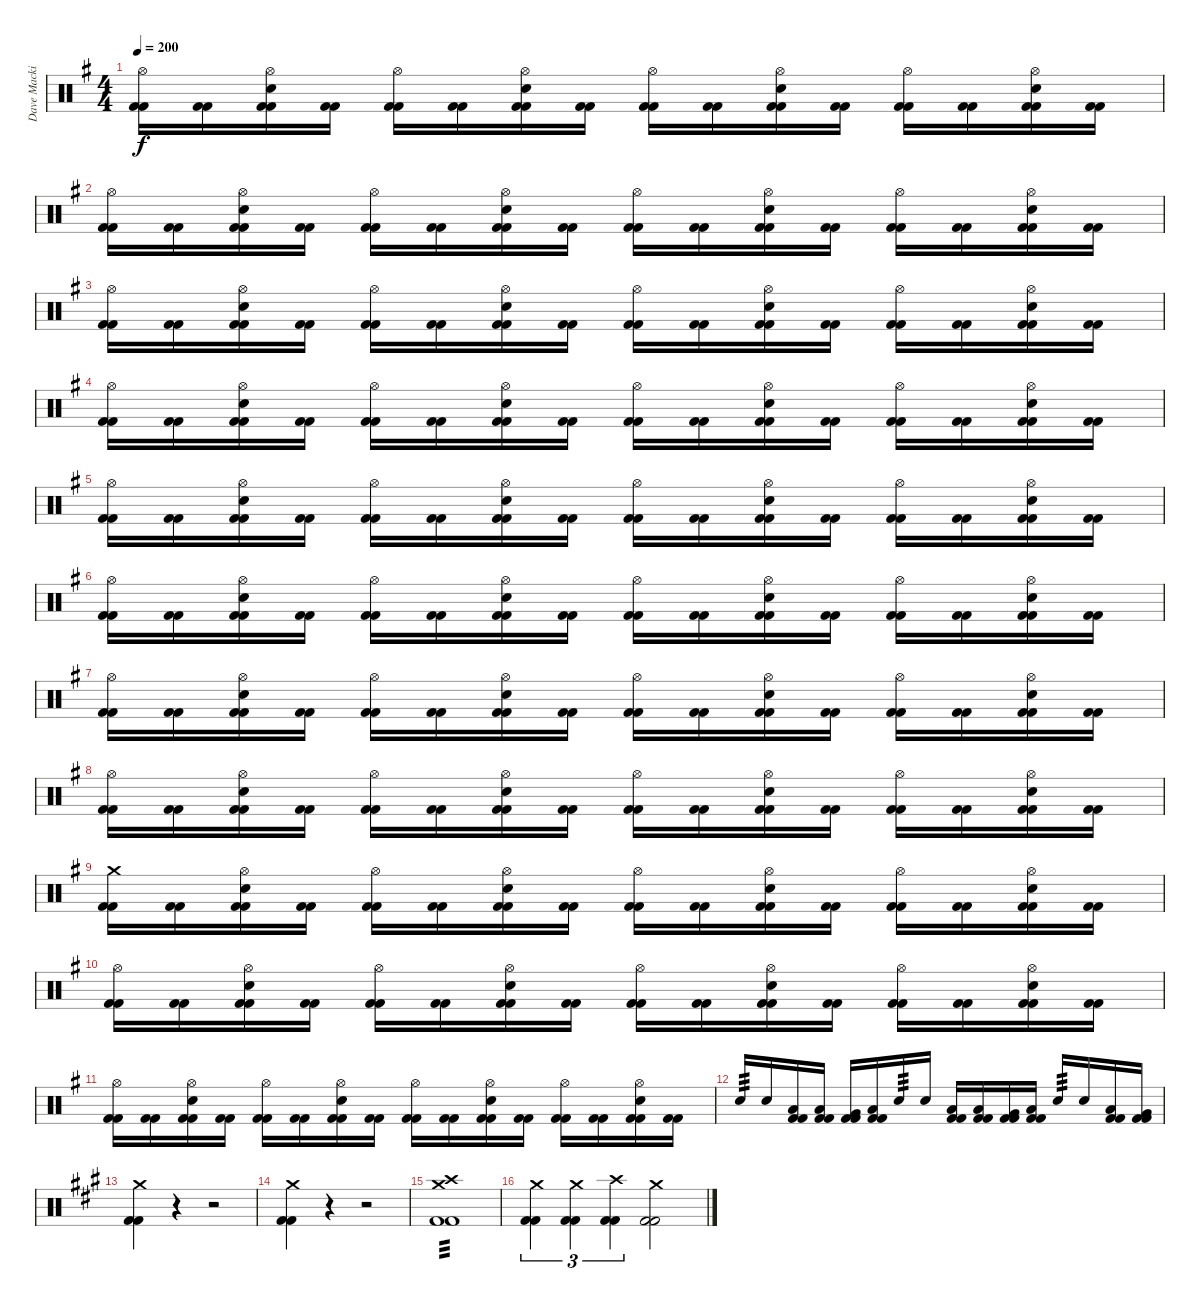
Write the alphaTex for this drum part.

\track ("Dave Mackintosh" "Dave Macki") {instrument percussion}
\staff {score}
\articulation defaults
\ts (4 4)
\tempo 200
\clef neutral
\ks g
("Hi-Hat (open)" "Kick (hit) 2" "Kick (hit) 2").16{dy f} ("Kick (hit) 2" "Kick (hit) 2").16 ("Hi-Hat (open)" "Electric Snare (hit)" "Kick (hit) 2" "Kick (hit) 2").16 ("Kick (hit) 2" "Kick (hit) 2").16 ("Hi-Hat (open)" "Kick (hit) 2" "Kick (hit) 2").16 ("Kick (hit) 2" "Kick (hit) 2").16 ("Hi-Hat (open)" "Electric Snare (hit)" "Kick (hit) 2" "Kick (hit) 2").16 ("Kick (hit) 2" "Kick (hit) 2").16 ("Hi-Hat (open)" "Kick (hit) 2" "Kick (hit) 2").16 ("Kick (hit) 2" "Kick (hit) 2").16 ("Hi-Hat (open)" "Electric Snare (hit)" "Kick (hit) 2" "Kick (hit) 2").16 ("Kick (hit) 2" "Kick (hit) 2").16 ("Hi-Hat (open)" "Kick (hit) 2" "Kick (hit) 2").16 ("Kick (hit) 2" "Kick (hit) 2").16 ("Hi-Hat (open)" "Electric Snare (hit)" "Kick (hit) 2" "Kick (hit) 2").16 ("Kick (hit) 2" "Kick (hit) 2").16 |
("Hi-Hat (open)" "Kick (hit) 2" "Kick (hit) 2").16 ("Kick (hit) 2" "Kick (hit) 2").16 ("Hi-Hat (open)" "Electric Snare (hit)" "Kick (hit) 2" "Kick (hit) 2").16 ("Kick (hit) 2" "Kick (hit) 2").16 ("Hi-Hat (open)" "Kick (hit) 2" "Kick (hit) 2").16 ("Kick (hit) 2" "Kick (hit) 2").16 ("Hi-Hat (open)" "Electric Snare (hit)" "Kick (hit) 2" "Kick (hit) 2").16 ("Kick (hit) 2" "Kick (hit) 2").16 ("Hi-Hat (open)" "Kick (hit) 2" "Kick (hit) 2").16 ("Kick (hit) 2" "Kick (hit) 2").16 ("Hi-Hat (open)" "Electric Snare (hit)" "Kick (hit) 2" "Kick (hit) 2").16 ("Kick (hit) 2" "Kick (hit) 2").16 ("Hi-Hat (open)" "Kick (hit) 2" "Kick (hit) 2").16 ("Kick (hit) 2" "Kick (hit) 2").16 ("Hi-Hat (open)" "Electric Snare (hit)" "Kick (hit) 2" "Kick (hit) 2").16 ("Kick (hit) 2" "Kick (hit) 2").16 |
("Hi-Hat (open)" "Kick (hit) 2" "Kick (hit) 2").16 ("Kick (hit) 2" "Kick (hit) 2").16 ("Hi-Hat (open)" "Electric Snare (hit)" "Kick (hit) 2" "Kick (hit) 2").16 ("Kick (hit) 2" "Kick (hit) 2").16 ("Hi-Hat (open)" "Kick (hit) 2" "Kick (hit) 2").16 ("Kick (hit) 2" "Kick (hit) 2").16 ("Hi-Hat (open)" "Electric Snare (hit)" "Kick (hit) 2" "Kick (hit) 2").16 ("Kick (hit) 2" "Kick (hit) 2").16 ("Hi-Hat (open)" "Kick (hit) 2" "Kick (hit) 2").16 ("Kick (hit) 2" "Kick (hit) 2").16 ("Hi-Hat (open)" "Electric Snare (hit)" "Kick (hit) 2" "Kick (hit) 2").16 ("Kick (hit) 2" "Kick (hit) 2").16 ("Hi-Hat (open)" "Kick (hit) 2" "Kick (hit) 2").16 ("Kick (hit) 2" "Kick (hit) 2").16 ("Hi-Hat (open)" "Electric Snare (hit)" "Kick (hit) 2" "Kick (hit) 2").16 ("Kick (hit) 2" "Kick (hit) 2").16 |
("Hi-Hat (open)" "Kick (hit) 2" "Kick (hit) 2").16 ("Kick (hit) 2" "Kick (hit) 2").16 ("Hi-Hat (open)" "Electric Snare (hit)" "Kick (hit) 2" "Kick (hit) 2").16 ("Kick (hit) 2" "Kick (hit) 2").16 ("Hi-Hat (open)" "Kick (hit) 2" "Kick (hit) 2").16 ("Kick (hit) 2" "Kick (hit) 2").16 ("Hi-Hat (open)" "Electric Snare (hit)" "Kick (hit) 2" "Kick (hit) 2").16 ("Kick (hit) 2" "Kick (hit) 2").16 ("Hi-Hat (open)" "Kick (hit) 2" "Kick (hit) 2").16 ("Kick (hit) 2" "Kick (hit) 2").16 ("Hi-Hat (open)" "Electric Snare (hit)" "Kick (hit) 2" "Kick (hit) 2").16 ("Kick (hit) 2" "Kick (hit) 2").16 ("Hi-Hat (open)" "Kick (hit) 2" "Kick (hit) 2").16 ("Kick (hit) 2" "Kick (hit) 2").16 ("Hi-Hat (open)" "Electric Snare (hit)" "Kick (hit) 2" "Kick (hit) 2").16 ("Kick (hit) 2" "Kick (hit) 2").16 |
("Hi-Hat (open)" "Kick (hit) 2" "Kick (hit) 2").16 ("Kick (hit) 2" "Kick (hit) 2").16 ("Hi-Hat (open)" "Electric Snare (hit)" "Kick (hit) 2" "Kick (hit) 2").16 ("Kick (hit) 2" "Kick (hit) 2").16 ("Hi-Hat (open)" "Kick (hit) 2" "Kick (hit) 2").16 ("Kick (hit) 2" "Kick (hit) 2").16 ("Hi-Hat (open)" "Electric Snare (hit)" "Kick (hit) 2" "Kick (hit) 2").16 ("Kick (hit) 2" "Kick (hit) 2").16 ("Hi-Hat (open)" "Kick (hit) 2" "Kick (hit) 2").16 ("Kick (hit) 2" "Kick (hit) 2").16 ("Hi-Hat (open)" "Electric Snare (hit)" "Kick (hit) 2" "Kick (hit) 2").16 ("Kick (hit) 2" "Kick (hit) 2").16 ("Hi-Hat (open)" "Kick (hit) 2" "Kick (hit) 2").16 ("Kick (hit) 2" "Kick (hit) 2").16 ("Hi-Hat (open)" "Electric Snare (hit)" "Kick (hit) 2" "Kick (hit) 2").16 ("Kick (hit) 2" "Kick (hit) 2").16 |
("Hi-Hat (open)" "Kick (hit) 2" "Kick (hit) 2").16 ("Kick (hit) 2" "Kick (hit) 2").16 ("Hi-Hat (open)" "Electric Snare (hit)" "Kick (hit) 2" "Kick (hit) 2").16 ("Kick (hit) 2" "Kick (hit) 2").16 ("Hi-Hat (open)" "Kick (hit) 2" "Kick (hit) 2").16 ("Kick (hit) 2" "Kick (hit) 2").16 ("Hi-Hat (open)" "Electric Snare (hit)" "Kick (hit) 2" "Kick (hit) 2").16 ("Kick (hit) 2" "Kick (hit) 2").16 ("Hi-Hat (open)" "Kick (hit) 2" "Kick (hit) 2").16 ("Kick (hit) 2" "Kick (hit) 2").16 ("Hi-Hat (open)" "Electric Snare (hit)" "Kick (hit) 2" "Kick (hit) 2").16 ("Kick (hit) 2" "Kick (hit) 2").16 ("Hi-Hat (open)" "Kick (hit) 2" "Kick (hit) 2").16 ("Kick (hit) 2" "Kick (hit) 2").16 ("Hi-Hat (open)" "Electric Snare (hit)" "Kick (hit) 2" "Kick (hit) 2").16 ("Kick (hit) 2" "Kick (hit) 2").16 |
("Hi-Hat (open)" "Kick (hit) 2" "Kick (hit) 2").16 ("Kick (hit) 2" "Kick (hit) 2").16 ("Hi-Hat (open)" "Electric Snare (hit)" "Kick (hit) 2" "Kick (hit) 2").16 ("Kick (hit) 2" "Kick (hit) 2").16 ("Hi-Hat (open)" "Kick (hit) 2" "Kick (hit) 2").16 ("Kick (hit) 2" "Kick (hit) 2").16 ("Hi-Hat (open)" "Electric Snare (hit)" "Kick (hit) 2" "Kick (hit) 2").16 ("Kick (hit) 2" "Kick (hit) 2").16 ("Hi-Hat (open)" "Kick (hit) 2" "Kick (hit) 2").16 ("Kick (hit) 2" "Kick (hit) 2").16 ("Hi-Hat (open)" "Electric Snare (hit)" "Kick (hit) 2" "Kick (hit) 2").16 ("Kick (hit) 2" "Kick (hit) 2").16 ("Hi-Hat (open)" "Kick (hit) 2" "Kick (hit) 2").16 ("Kick (hit) 2" "Kick (hit) 2").16 ("Hi-Hat (open)" "Electric Snare (hit)" "Kick (hit) 2" "Kick (hit) 2").16 ("Kick (hit) 2" "Kick (hit) 2").16 |
("Hi-Hat (open)" "Kick (hit) 2" "Kick (hit) 2").16 ("Kick (hit) 2" "Kick (hit) 2").16 ("Hi-Hat (open)" "Electric Snare (hit)" "Kick (hit) 2" "Kick (hit) 2").16 ("Kick (hit) 2" "Kick (hit) 2").16 ("Hi-Hat (open)" "Kick (hit) 2" "Kick (hit) 2").16 ("Kick (hit) 2" "Kick (hit) 2").16 ("Hi-Hat (open)" "Electric Snare (hit)" "Kick (hit) 2" "Kick (hit) 2").16 ("Kick (hit) 2" "Kick (hit) 2").16 ("Hi-Hat (open)" "Kick (hit) 2" "Kick (hit) 2").16 ("Kick (hit) 2" "Kick (hit) 2").16 ("Hi-Hat (open)" "Electric Snare (hit)" "Kick (hit) 2" "Kick (hit) 2").16 ("Kick (hit) 2" "Kick (hit) 2").16 ("Hi-Hat (open)" "Kick (hit) 2" "Kick (hit) 2").16 ("Kick (hit) 2" "Kick (hit) 2").16 ("Hi-Hat (open)" "Electric Snare (hit)" "Kick (hit) 2" "Kick (hit) 2").16 ("Kick (hit) 2" "Kick (hit) 2").16 |
("Crash medium (hit)" "Kick (hit) 2" "Kick (hit) 2").16 ("Kick (hit) 2" "Kick (hit) 2").16 ("Hi-Hat (open)" "Electric Snare (hit)" "Kick (hit) 2" "Kick (hit) 2").16 ("Kick (hit) 2" "Kick (hit) 2").16 ("Hi-Hat (open)" "Kick (hit) 2" "Kick (hit) 2").16 ("Kick (hit) 2" "Kick (hit) 2").16 ("Hi-Hat (open)" "Electric Snare (hit)" "Kick (hit) 2" "Kick (hit) 2").16 ("Kick (hit) 2" "Kick (hit) 2").16 ("Hi-Hat (open)" "Kick (hit) 2" "Kick (hit) 2").16 ("Kick (hit) 2" "Kick (hit) 2").16 ("Hi-Hat (open)" "Electric Snare (hit)" "Kick (hit) 2" "Kick (hit) 2").16 ("Kick (hit) 2" "Kick (hit) 2").16 ("Hi-Hat (open)" "Kick (hit) 2" "Kick (hit) 2").16 ("Kick (hit) 2" "Kick (hit) 2").16 ("Hi-Hat (open)" "Electric Snare (hit)" "Kick (hit) 2" "Kick (hit) 2").16 ("Kick (hit) 2" "Kick (hit) 2").16 |
("Hi-Hat (open)" "Kick (hit) 2" "Kick (hit) 2").16 ("Kick (hit) 2" "Kick (hit) 2").16 ("Hi-Hat (open)" "Electric Snare (hit)" "Kick (hit) 2" "Kick (hit) 2").16 ("Kick (hit) 2" "Kick (hit) 2").16 ("Hi-Hat (open)" "Kick (hit) 2" "Kick (hit) 2").16 ("Kick (hit) 2" "Kick (hit) 2").16 ("Hi-Hat (open)" "Electric Snare (hit)" "Kick (hit) 2" "Kick (hit) 2").16 ("Kick (hit) 2" "Kick (hit) 2").16 ("Hi-Hat (open)" "Kick (hit) 2" "Kick (hit) 2").16 ("Kick (hit) 2" "Kick (hit) 2").16 ("Hi-Hat (open)" "Electric Snare (hit)" "Kick (hit) 2" "Kick (hit) 2").16 ("Kick (hit) 2" "Kick (hit) 2").16 ("Hi-Hat (open)" "Kick (hit) 2" "Kick (hit) 2").16 ("Kick (hit) 2" "Kick (hit) 2").16 ("Hi-Hat (open)" "Electric Snare (hit)" "Kick (hit) 2" "Kick (hit) 2").16 ("Kick (hit) 2" "Kick (hit) 2").16 |
("Hi-Hat (open)" "Kick (hit) 2" "Kick (hit) 2").16 ("Kick (hit) 2" "Kick (hit) 2").16 ("Hi-Hat (open)" "Electric Snare (hit)" "Kick (hit) 2" "Kick (hit) 2").16 ("Kick (hit) 2" "Kick (hit) 2").16 ("Hi-Hat (open)" "Kick (hit) 2" "Kick (hit) 2").16 ("Kick (hit) 2" "Kick (hit) 2").16 ("Hi-Hat (open)" "Electric Snare (hit)" "Kick (hit) 2" "Kick (hit) 2").16 ("Kick (hit) 2" "Kick (hit) 2").16 ("Hi-Hat (open)" "Kick (hit) 2" "Kick (hit) 2").16 ("Kick (hit) 2" "Kick (hit) 2").16 ("Hi-Hat (open)" "Electric Snare (hit)" "Kick (hit) 2" "Kick (hit) 2").16 ("Kick (hit) 2" "Kick (hit) 2").16 ("Hi-Hat (open)" "Kick (hit) 2" "Kick (hit) 2").16 ("Kick (hit) 2" "Kick (hit) 2").16 ("Hi-Hat (open)" "Electric Snare (hit)" "Kick (hit) 2" "Kick (hit) 2").16 ("Kick (hit) 2" "Kick (hit) 2").16 |
"Electric Snare (hit)".16{tp 3} "Electric Snare (hit)".16 ("Low Tom (hit)" "Kick (hit) 2" "Kick (hit) 2").16 ("Low Tom (hit)" "Kick (hit) 2" "Kick (hit) 2").16 ("Very Low Tom (hit)" "Kick (hit) 2" "Kick (hit) 2").16 ("Low Floor Tom (hit)" "Kick (hit) 2" "Kick (hit) 2").16 "Electric Snare (hit)".16{tp 3} "Electric Snare (hit)".16 ("Low Tom (hit)" "Kick (hit) 2" "Kick (hit) 2").16 ("Low Tom (hit)" "Kick (hit) 2" "Kick (hit) 2").16 ("Very Low Tom (hit)" "Kick (hit) 2" "Kick (hit) 2").16 ("Low Floor Tom (hit)" "Kick (hit) 2" "Kick (hit) 2").16 "Electric Snare (hit)".16{tp 3} "Electric Snare (hit)".16 ("Low Tom (hit)" "Kick (hit) 2" "Kick (hit) 2").16 ("Very Low Tom (hit)" "Kick (hit) 2" "Kick (hit) 2").16 |
\ks a
("Crash medium (hit)" "Kick (hit) 2" "Kick (hit) 2").4 r.4{volume 0} r.2 |
("Crash medium (hit)" "Kick (hit) 2" "Kick (hit) 2").4{volume 16} r.4{volume 0} r.2 |
("Crash medium (hit)" "Crash high (hit)" "Kick (hit) 2" "Kick (hit) 2").1{tp 3 volume 16} |
("Crash medium (hit)" "Kick (hit) 2" "Kick (hit) 2").4{tu (3 2)} ("Crash medium (hit)" "Kick (hit) 2" "Kick (hit) 2").4{tu (3 2)} ("Crash high (hit)" "Kick (hit) 2" "Kick (hit) 2").4{tu (3 2)} ("Crash medium (hit)" "Kick (hit) 2" "Kick (hit) 2").2
